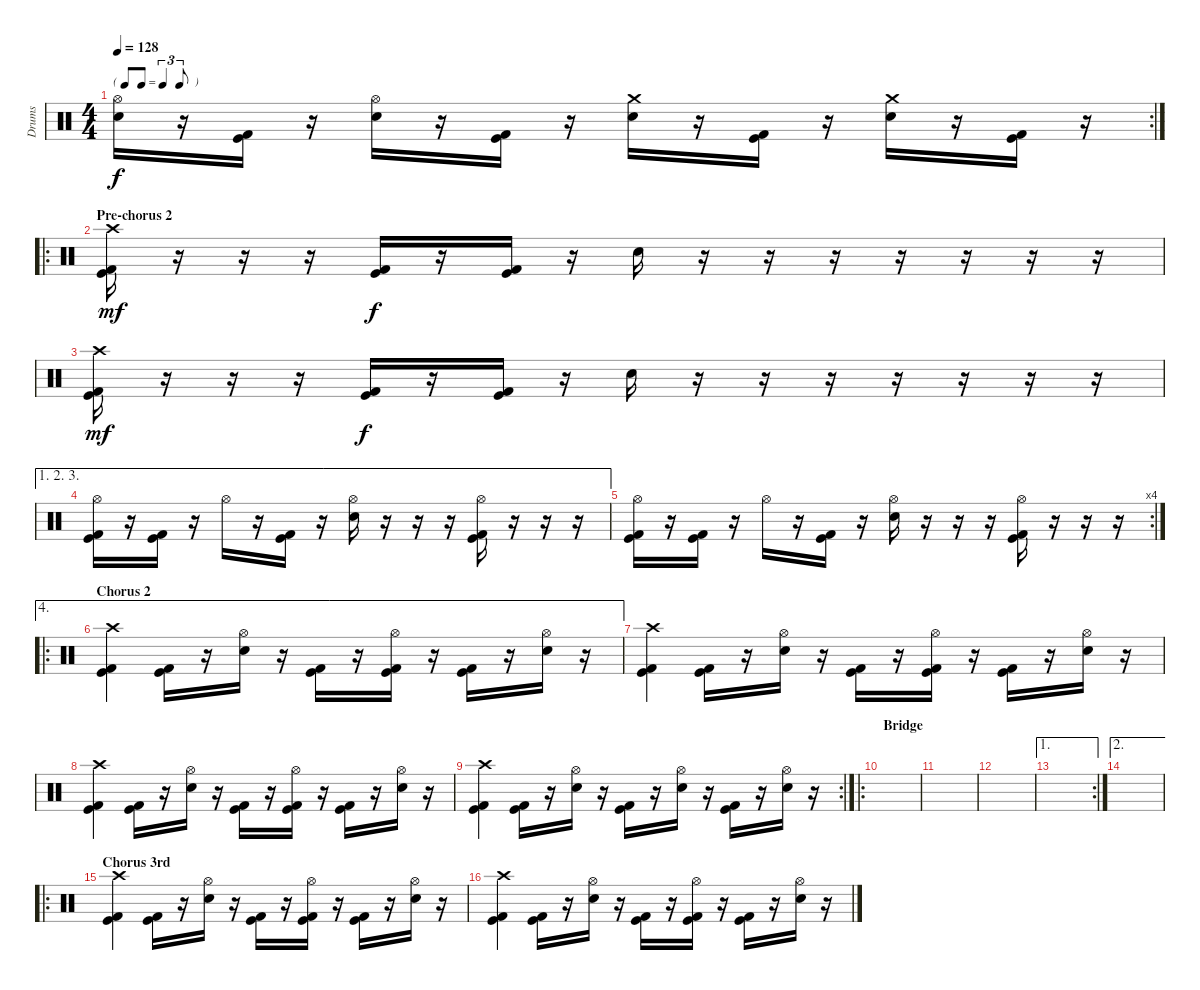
\track ("Drums" "Drums") {instrument percussion}
\staff {score}
\articulation defaults
\rc 2
\ts (4 4)
\tf triplet8th
\tempo 128
\clef neutral
\ks c
("Hi-Hat (open)" "Electric Snare (hit)").16{dy f} r.16 ("Kick (hit)" "Kick (hit) 2").16 r.16 ("Hi-Hat (open)" "Electric Snare (hit)").16 r.16 ("Kick (hit)" "Kick (hit) 2").16 r.16 ("Crash medium (hit)" "Electric Snare (hit)").16 r.16 ("Kick (hit)" "Kick (hit) 2").16 r.16 ("Crash medium (hit)" "Electric Snare (hit)").16 r.16 ("Kick (hit)" "Kick (hit) 2").16 r.16 |
\ro
\section ("" "Pre-chorus 2")
("Crash high (hit)" "Kick (hit)" "Kick (hit) 2").16{dy mf} r.16 r.16 r.16 ("Kick (hit)" "Kick (hit) 2").16{dy f} r.16 ("Kick (hit)" "Kick (hit) 2").16 r.16 "Electric Snare (hit)".16 r.16 r.16 r.16 r.16 r.16 r.16 r.16 |
("Crash high (hit)" "Kick (hit)" "Kick (hit) 2").16{dy mf} r.16 r.16 r.16 ("Kick (hit)" "Kick (hit) 2").16{dy f} r.16 ("Kick (hit)" "Kick (hit) 2").16 r.16 "Electric Snare (hit)".16 r.16 r.16 r.16 r.16 r.16 r.16 r.16 |
\ae (1 2 3)
("Hi-Hat (open)" "Kick (hit) 2" "Kick (hit)").16 r.16 ("Kick (hit) 2" "Kick (hit)").16 r.16 "Hi-Hat (open)".16 r.16 ("Kick (hit)" "Kick (hit) 2").16 r.16 ("Hi-Hat (open)" "Electric Snare (hit)").16 r.16 r.16 r.16 ("Hi-Hat (open)" "Kick (hit)" "Kick (hit) 2").16 r.16 r.16 r.16 |
\rc 4
("Hi-Hat (open)" "Kick (hit)" "Kick (hit) 2").16 r.16 ("Kick (hit)" "Kick (hit) 2").16 r.16 "Hi-Hat (open)".16 r.16 ("Kick (hit)" "Kick (hit) 2").16 r.16 ("Hi-Hat (open)" "Electric Snare (hit)").16 r.16 r.16 r.16 ("Hi-Hat (open)" "Kick (hit)" "Kick (hit) 2").16 r.16 r.16 r.16 |
\ae 4
\ro
\section ("" "Chorus 2")
("Crash high (hit)" "Kick (hit)" "Kick (hit) 2").4 ("Kick (hit)" "Kick (hit) 2").16 r.16 ("Hi-Hat (open)" "Electric Snare (hit)").16 r.16 ("Kick (hit) 2" "Kick (hit)").16 r.16 ("Hi-Hat (open)" "Kick (hit)" "Kick (hit) 2").16 r.16 ("Kick (hit)" "Kick (hit) 2").16 r.16 ("Hi-Hat (open)" "Electric Snare (hit)").16 r.16 |
("Crash high (hit)" "Kick (hit)" "Kick (hit) 2").4 ("Kick (hit)" "Kick (hit) 2").16 r.16 ("Hi-Hat (open)" "Electric Snare (hit)").16 r.16 ("Kick (hit) 2" "Kick (hit)").16 r.16 ("Hi-Hat (open)" "Kick (hit)" "Kick (hit) 2").16 r.16 ("Kick (hit)" "Kick (hit) 2").16 r.16 ("Hi-Hat (open)" "Electric Snare (hit)").16 r.16 |
("Crash high (hit)" "Kick (hit)" "Kick (hit) 2").4 ("Kick (hit)" "Kick (hit) 2").16 r.16 ("Hi-Hat (open)" "Electric Snare (hit)").16 r.16 ("Kick (hit) 2" "Kick (hit)").16 r.16 ("Hi-Hat (open)" "Kick (hit)" "Kick (hit) 2").16 r.16 ("Kick (hit)" "Kick (hit) 2").16 r.16 ("Hi-Hat (open)" "Electric Snare (hit)").16 r.16 |
\rc 2
("Crash high (hit)" "Kick (hit)" "Kick (hit) 2").4 ("Kick (hit)" "Kick (hit) 2").16 r.16 ("Hi-Hat (open)" "Electric Snare (hit)").16 r.16 ("Kick (hit) 2" "Kick (hit)").16 r.16 ("Hi-Hat (open)" "Electric Snare (hit)").16 r.16 ("Kick (hit)" "Kick (hit) 2").16 r.16 ("Hi-Hat (open)" "Electric Snare (hit)").16 r.16 |
\ro
\section ("" "Bridge")
|
|
|
\ae 1
\rc 2
|
\ae 2
|
\ro
\section ("" "Chorus 3rd")
("Crash high (hit)" "Kick (hit)" "Kick (hit) 2").4 ("Kick (hit)" "Kick (hit) 2").16 r.16 ("Hi-Hat (open)" "Electric Snare (hit)").16 r.16 ("Kick (hit) 2" "Kick (hit)").16 r.16 ("Hi-Hat (open)" "Kick (hit)" "Kick (hit) 2").16 r.16 ("Kick (hit)" "Kick (hit) 2").16 r.16 ("Hi-Hat (open)" "Electric Snare (hit)").16 r.16 |
("Crash high (hit)" "Kick (hit)" "Kick (hit) 2").4 ("Kick (hit)" "Kick (hit) 2").16 r.16 ("Hi-Hat (open)" "Electric Snare (hit)").16 r.16 ("Kick (hit) 2" "Kick (hit)").16 r.16 ("Hi-Hat (open)" "Kick (hit)" "Kick (hit) 2").16 r.16 ("Kick (hit)" "Kick (hit) 2").16 r.16 ("Hi-Hat (open)" "Electric Snare (hit)").16 r.16
